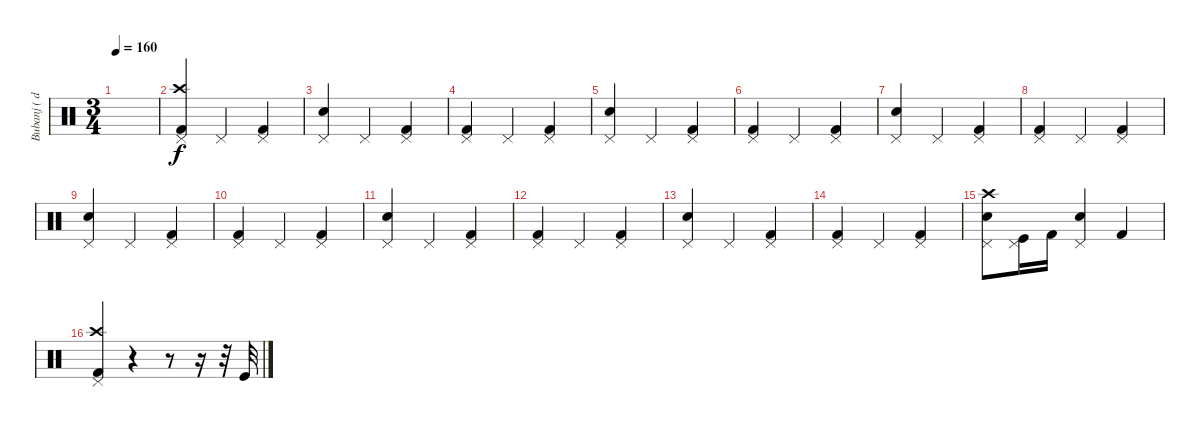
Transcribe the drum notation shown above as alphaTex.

\track ("Bubanj ( drums )" "Bubanj ( d") {instrument percussion}
\staff {score}
\articulation defaults
\ts (3 4)
\tempo 160
\clef neutral
\ks c
|
("Kick (hit) 2" "Crash high (hit)" "Pedal Hi-Hat (hit)").4 "Pedal Hi-Hat (hit)".4 ("Kick (hit) 2" "Pedal Hi-Hat (hit)").4 |
("Snare (hit) 2" "Pedal Hi-Hat (hit)").4 "Pedal Hi-Hat (hit)".4 ("Kick (hit) 2" "Pedal Hi-Hat (hit)").4 |
("Kick (hit) 2" "Pedal Hi-Hat (hit)").4 "Pedal Hi-Hat (hit)".4 ("Kick (hit) 2" "Pedal Hi-Hat (hit)").4 |
("Snare (hit) 2" "Pedal Hi-Hat (hit)").4 "Pedal Hi-Hat (hit)".4 ("Kick (hit) 2" "Pedal Hi-Hat (hit)").4 |
("Kick (hit) 2" "Pedal Hi-Hat (hit)").4 "Pedal Hi-Hat (hit)".4 ("Kick (hit) 2" "Pedal Hi-Hat (hit)").4 |
("Snare (hit) 2" "Pedal Hi-Hat (hit)").4 "Pedal Hi-Hat (hit)".4 ("Kick (hit) 2" "Pedal Hi-Hat (hit)").4 |
("Kick (hit) 2" "Pedal Hi-Hat (hit)").4 "Pedal Hi-Hat (hit)".4 ("Kick (hit) 2" "Pedal Hi-Hat (hit)").4 |
("Snare (hit) 2" "Pedal Hi-Hat (hit)").4 "Pedal Hi-Hat (hit)".4 ("Kick (hit) 2" "Pedal Hi-Hat (hit)").4 |
("Kick (hit) 2" "Pedal Hi-Hat (hit)").4 "Pedal Hi-Hat (hit)".4 ("Kick (hit) 2" "Pedal Hi-Hat (hit)").4 |
("Snare (hit) 2" "Pedal Hi-Hat (hit)").4 "Pedal Hi-Hat (hit)".4 ("Kick (hit) 2" "Pedal Hi-Hat (hit)").4 |
("Kick (hit) 2" "Pedal Hi-Hat (hit)").4 "Pedal Hi-Hat (hit)".4 ("Kick (hit) 2" "Pedal Hi-Hat (hit)").4 |
("Snare (hit) 2" "Pedal Hi-Hat (hit)").4 "Pedal Hi-Hat (hit)".4 ("Kick (hit) 2" "Pedal Hi-Hat (hit)").4 |
("Kick (hit) 2" "Pedal Hi-Hat (hit)").4 "Pedal Hi-Hat (hit)".4 ("Kick (hit) 2" "Pedal Hi-Hat (hit)").4 |
("Snare (hit) 2" "Crash high (hit)" "Pedal Hi-Hat (hit)").8 ("Kick (hit)" "Pedal Hi-Hat (hit)").16 "Kick (hit) 2".16 ("Snare (hit) 2" "Pedal Hi-Hat (hit)").4 "Kick (hit) 2".4 |
("Kick (hit) 2" "Crash high (hit)" "Pedal Hi-Hat (hit)").4 r.4 r.8 r.16 r.32 "Kick (hit)".32
